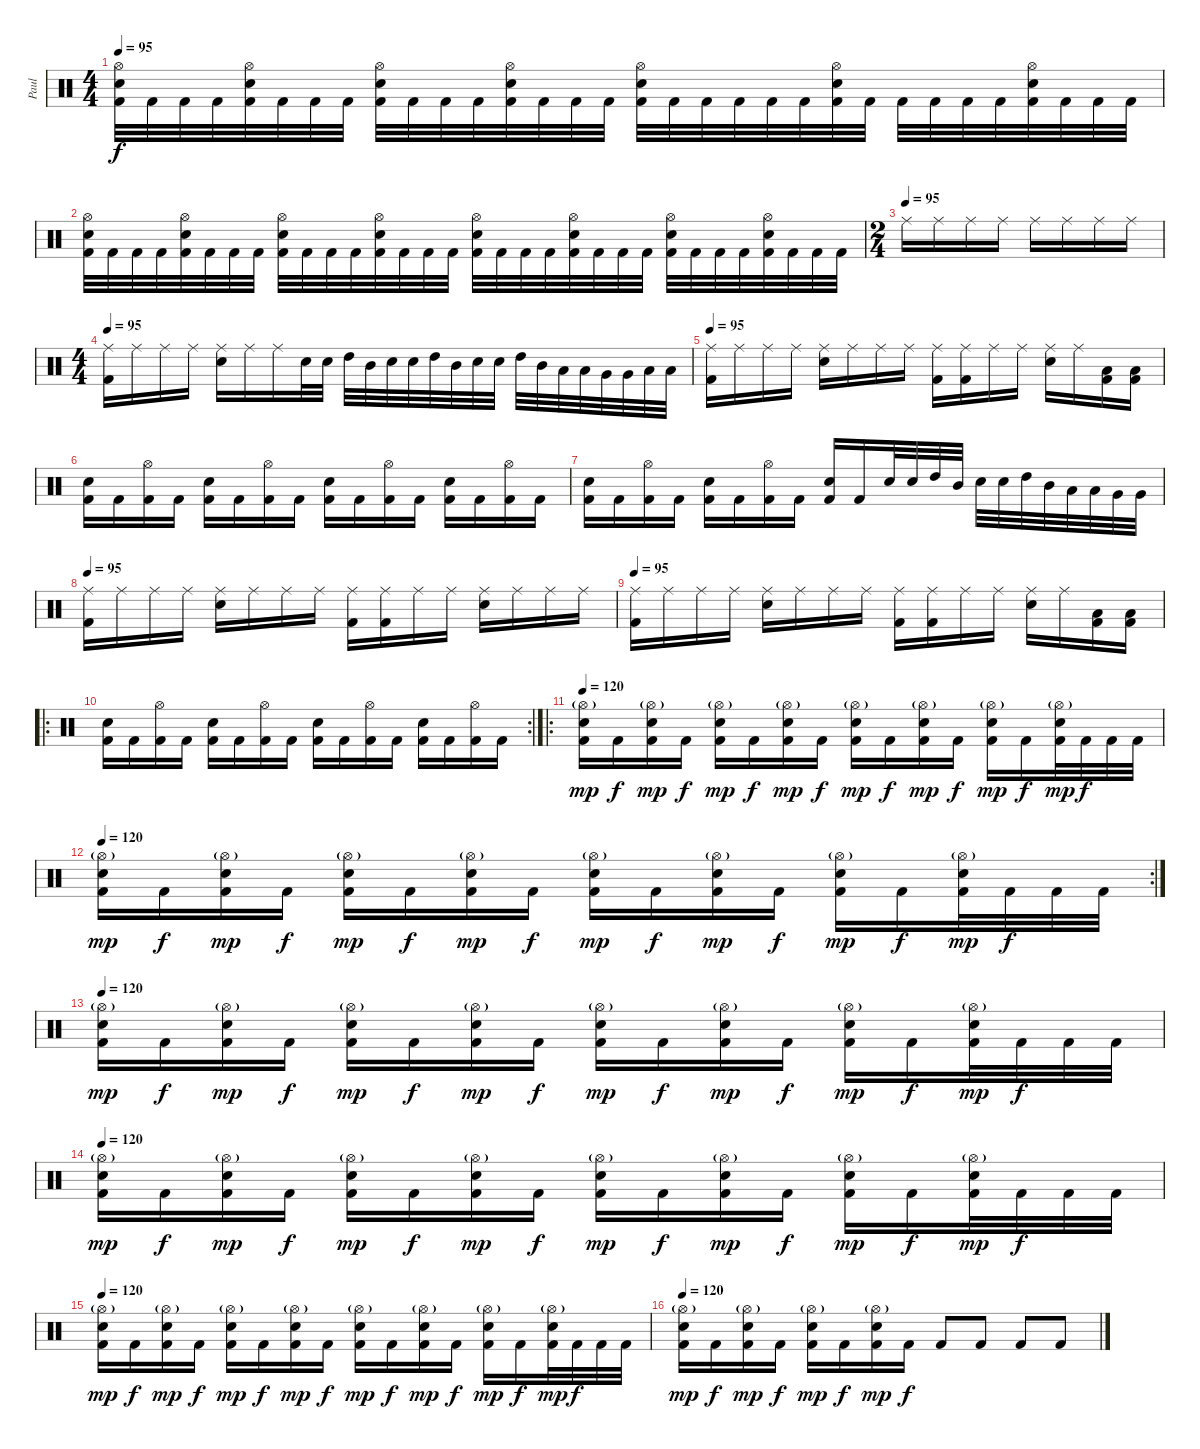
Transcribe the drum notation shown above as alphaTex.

\track ("Paul" "Paul") {instrument percussion}
\staff {score}
\articulation defaults
\ts (4 4)
\tempo 95
\clef neutral
\ks c
("Hi-Hat (open)" "Electric Snare (hit)" "Kick (hit) 2").32{dy f} "Kick (hit) 2".32 "Kick (hit) 2".32 "Kick (hit) 2".32 ("Hi-Hat (open)" "Electric Snare (hit)" "Kick (hit) 2").32 "Kick (hit) 2".32 "Kick (hit) 2".32 "Kick (hit) 2".32 ("Hi-Hat (open)" "Electric Snare (hit)" "Kick (hit) 2").32 "Kick (hit) 2".32 "Kick (hit) 2".32 "Kick (hit) 2".32 ("Hi-Hat (open)" "Electric Snare (hit)" "Kick (hit) 2").32 "Kick (hit) 2".32 "Kick (hit) 2".32 "Kick (hit) 2".32 ("Hi-Hat (open)" "Electric Snare (hit)" "Kick (hit) 2").32 "Kick (hit) 2".32 "Kick (hit) 2".32 "Kick (hit) 2".32 "Kick (hit) 2".32 "Kick (hit) 2".32 ("Hi-Hat (open)" "Electric Snare (hit)" "Kick (hit) 2").32 "Kick (hit) 2".32 "Kick (hit) 2".32 "Kick (hit) 2".32 "Kick (hit) 2".32 "Kick (hit) 2".32 ("Hi-Hat (open)" "Electric Snare (hit)" "Kick (hit) 2").32 "Kick (hit) 2".32 "Kick (hit) 2".32 "Kick (hit) 2".32 |
("Hi-Hat (open)" "Electric Snare (hit)" "Kick (hit) 2").32 "Kick (hit) 2".32 "Kick (hit) 2".32 "Kick (hit) 2".32 ("Hi-Hat (open)" "Electric Snare (hit)" "Kick (hit) 2").32 "Kick (hit) 2".32 "Kick (hit) 2".32 "Kick (hit) 2".32 ("Hi-Hat (open)" "Electric Snare (hit)" "Kick (hit) 2").32 "Kick (hit) 2".32 "Kick (hit) 2".32 "Kick (hit) 2".32 ("Hi-Hat (open)" "Electric Snare (hit)" "Kick (hit) 2").32 "Kick (hit) 2".32 "Kick (hit) 2".32 "Kick (hit) 2".32 ("Hi-Hat (open)" "Electric Snare (hit)" "Kick (hit) 2").32 "Kick (hit) 2".32 "Kick (hit) 2".32 "Kick (hit) 2".32 ("Hi-Hat (open)" "Electric Snare (hit)" "Kick (hit) 2").32 "Kick (hit) 2".32 "Kick (hit) 2".32 "Kick (hit) 2".32 ("Hi-Hat (open)" "Electric Snare (hit)" "Kick (hit) 2").32 "Kick (hit) 2".32 "Kick (hit) 2".32 "Kick (hit) 2".32 ("Hi-Hat (open)" "Electric Snare (hit)" "Kick (hit) 2").32 "Kick (hit) 2".32 "Kick (hit) 2".32 "Kick (hit) 2".32 |
\ts (2 4)
\tempo (95)
"Ride (middle)".16 "Ride (middle)".16 "Ride (middle)".16 "Ride (middle)".16 "Ride (middle)".16 "Ride (middle)".16 "Ride (middle)".16 "Ride (middle)".16 |
\ts (4 4)
\tempo 95
("Ride (middle)" "Kick (hit) 2").16{volume 15} "Ride (middle)".16 "Ride (middle)".16 "Ride (middle)".16 ("Ride (middle)" "Electric Snare (hit)").16 "Ride (middle)".16 "Ride (middle)".16 "Electric Snare (hit)".32 "Electric Snare (hit)".32 "High Tom (hit)".32 "Mid Tom (hit)".32 "Electric Snare (hit)".32 "Electric Snare (hit)".32 "High Tom (hit)".32 "Mid Tom (hit)".32 "Electric Snare (hit)".32 "Electric Snare (hit)".32 "High Tom (hit)".32 "Mid Tom (hit)".32 "Low Tom (hit)".32 "Low Tom (hit)".32 "Very Low Tom (hit)".32 "Very Low Tom (hit)".32 "Low Floor Tom (hit)".32 "Low Floor Tom (hit)".32 |
\tempo 95
("Ride (middle)" "Kick (hit) 2").16{volume 15} "Ride (middle)".16 "Ride (middle)".16 "Ride (middle)".16 ("Ride (middle)" "Electric Snare (hit)").16 "Ride (middle)".16 "Ride (middle)".16 "Ride (middle)".16 ("Ride (middle)" "Kick (hit) 2").16 ("Ride (middle)" "Kick (hit) 2").16 "Ride (middle)".16 "Ride (middle)".16 ("Ride (middle)" "Electric Snare (hit)").16 "Ride (middle)".16 ("Low Floor Tom (hit)" "Kick (hit) 2").16 ("Low Floor Tom (hit)" "Kick (hit) 2").16 |
("Electric Snare (hit)" "Kick (hit) 2").16 "Kick (hit) 2".16 ("Hi-Hat (open)" "Kick (hit) 2").16 "Kick (hit) 2".16 ("Electric Snare (hit)" "Kick (hit) 2").16 "Kick (hit) 2".16 ("Hi-Hat (open)" "Kick (hit) 2").16 "Kick (hit) 2".16 ("Electric Snare (hit)" "Kick (hit) 2").16 "Kick (hit) 2".16 ("Hi-Hat (open)" "Kick (hit) 2").16 "Kick (hit) 2".16 ("Electric Snare (hit)" "Kick (hit) 2").16 "Kick (hit) 2".16 ("Hi-Hat (open)" "Kick (hit) 2").16 "Kick (hit) 2".16 |
("Electric Snare (hit)" "Kick (hit) 2").16 "Kick (hit) 2".16 ("Hi-Hat (open)" "Kick (hit) 2").16 "Kick (hit) 2".16 ("Electric Snare (hit)" "Kick (hit) 2").16 "Kick (hit) 2".16 ("Hi-Hat (open)" "Kick (hit) 2").16 "Kick (hit) 2".16 ("Electric Snare (hit)" "Kick (hit) 2").16 "Kick (hit) 2".16 "Electric Snare (hit)".32 "Electric Snare (hit)".32 "High Tom (hit)".32 "Mid Tom (hit)".32 "Electric Snare (hit)".32 "Electric Snare (hit)".32 "High Tom (hit)".32 "Mid Tom (hit)".32 "Low Tom (hit)".32 "Low Tom (hit)".32 "Very Low Tom (hit)".32 "Very Low Tom (hit)".32 |
\tempo 95
("Ride (middle)" "Kick (hit) 2").16{volume 15} "Ride (middle)".16 "Ride (middle)".16 "Ride (middle)".16 ("Ride (middle)" "Electric Snare (hit)").16 "Ride (middle)".16 "Ride (middle)".16 "Ride (middle)".16 ("Ride (middle)" "Kick (hit) 2").16 ("Ride (middle)" "Kick (hit) 2").16 "Ride (middle)".16 "Ride (middle)".16 ("Ride (middle)" "Electric Snare (hit)").16 "Ride (middle)".16 "Ride (middle)".16 "Ride (middle)".16 |
\tempo 95
("Ride (middle)" "Kick (hit) 2").16{volume 15} "Ride (middle)".16 "Ride (middle)".16 "Ride (middle)".16 ("Ride (middle)" "Electric Snare (hit)").16 "Ride (middle)".16 "Ride (middle)".16 "Ride (middle)".16 ("Ride (middle)" "Kick (hit) 2").16 ("Ride (middle)" "Kick (hit) 2").16 "Ride (middle)".16 "Ride (middle)".16 ("Ride (middle)" "Electric Snare (hit)").16 "Ride (middle)".16 ("Low Floor Tom (hit)" "Kick (hit) 2").16 ("Low Floor Tom (hit)" "Kick (hit) 2").16 |
\ro
\rc 2
("Electric Snare (hit)" "Kick (hit) 2").16 "Kick (hit) 2".16 ("Hi-Hat (open)" "Kick (hit) 2").16 "Kick (hit) 2".16 ("Electric Snare (hit)" "Kick (hit) 2").16 "Kick (hit) 2".16 ("Hi-Hat (open)" "Kick (hit) 2").16 "Kick (hit) 2".16 ("Electric Snare (hit)" "Kick (hit) 2").16 "Kick (hit) 2".16 ("Hi-Hat (open)" "Kick (hit) 2").16 "Kick (hit) 2".16 ("Electric Snare (hit)" "Kick (hit) 2").16 "Kick (hit) 2".16 ("Hi-Hat (open)" "Kick (hit) 2").16 "Kick (hit) 2".16 |
\ro
\tempo 120
("Hi-Hat (open)"{g} "Electric Snare (hit)" "Kick (hit) 2").16{dy mp} "Kick (hit) 2".16{dy f} ("Hi-Hat (open)"{g} "Electric Snare (hit)" "Kick (hit) 2").16{dy mp} "Kick (hit) 2".16{dy f} ("Hi-Hat (open)"{g} "Electric Snare (hit)" "Kick (hit) 2").16{dy mp} "Kick (hit) 2".16{dy f} ("Hi-Hat (open)"{g} "Electric Snare (hit)" "Kick (hit) 2").16{dy mp} "Kick (hit) 2".16{dy f} ("Hi-Hat (open)"{g} "Electric Snare (hit)" "Kick (hit) 2").16{dy mp} "Kick (hit) 2".16{dy f} ("Hi-Hat (open)"{g} "Electric Snare (hit)" "Kick (hit) 2").16{dy mp} "Kick (hit) 2".16{dy f} ("Hi-Hat (open)"{g} "Electric Snare (hit)" "Kick (hit) 2").16{dy mp} "Kick (hit) 2".16{dy f} ("Hi-Hat (open)"{g} "Electric Snare (hit)" "Kick (hit) 2").32{dy mp} "Kick (hit) 2".32{dy f} "Kick (hit) 2".32 "Kick (hit) 2".32 |
\rc 2
\tempo 120
("Hi-Hat (open)"{g} "Electric Snare (hit)" "Kick (hit) 2").16{dy mp} "Kick (hit) 2".16{dy f} ("Hi-Hat (open)"{g} "Electric Snare (hit)" "Kick (hit) 2").16{dy mp} "Kick (hit) 2".16{dy f} ("Hi-Hat (open)"{g} "Electric Snare (hit)" "Kick (hit) 2").16{dy mp} "Kick (hit) 2".16{dy f} ("Hi-Hat (open)"{g} "Electric Snare (hit)" "Kick (hit) 2").16{dy mp} "Kick (hit) 2".16{dy f} ("Hi-Hat (open)"{g} "Electric Snare (hit)" "Kick (hit) 2").16{dy mp} "Kick (hit) 2".16{dy f} ("Hi-Hat (open)"{g} "Electric Snare (hit)" "Kick (hit) 2").16{dy mp} "Kick (hit) 2".16{dy f} ("Hi-Hat (open)"{g} "Electric Snare (hit)" "Kick (hit) 2").16{dy mp} "Kick (hit) 2".16{dy f} ("Hi-Hat (open)"{g} "Electric Snare (hit)" "Kick (hit) 2").32{dy mp} "Kick (hit) 2".32{dy f} "Kick (hit) 2".32 "Kick (hit) 2".32 |
\tempo 120
("Hi-Hat (open)"{g} "Electric Snare (hit)" "Kick (hit) 2").16{dy mp} "Kick (hit) 2".16{dy f} ("Hi-Hat (open)"{g} "Electric Snare (hit)" "Kick (hit) 2").16{dy mp} "Kick (hit) 2".16{dy f} ("Hi-Hat (open)"{g} "Electric Snare (hit)" "Kick (hit) 2").16{dy mp} "Kick (hit) 2".16{dy f} ("Hi-Hat (open)"{g} "Electric Snare (hit)" "Kick (hit) 2").16{dy mp} "Kick (hit) 2".16{dy f} ("Hi-Hat (open)"{g} "Electric Snare (hit)" "Kick (hit) 2").16{dy mp} "Kick (hit) 2".16{dy f} ("Hi-Hat (open)"{g} "Electric Snare (hit)" "Kick (hit) 2").16{dy mp} "Kick (hit) 2".16{dy f} ("Hi-Hat (open)"{g} "Electric Snare (hit)" "Kick (hit) 2").16{dy mp} "Kick (hit) 2".16{dy f} ("Hi-Hat (open)"{g} "Electric Snare (hit)" "Kick (hit) 2").32{dy mp} "Kick (hit) 2".32{dy f} "Kick (hit) 2".32 "Kick (hit) 2".32 |
\tempo 120
("Hi-Hat (open)"{g} "Electric Snare (hit)" "Kick (hit) 2").16{dy mp} "Kick (hit) 2".16{dy f} ("Hi-Hat (open)"{g} "Electric Snare (hit)" "Kick (hit) 2").16{dy mp} "Kick (hit) 2".16{dy f} ("Hi-Hat (open)"{g} "Electric Snare (hit)" "Kick (hit) 2").16{dy mp} "Kick (hit) 2".16{dy f} ("Hi-Hat (open)"{g} "Electric Snare (hit)" "Kick (hit) 2").16{dy mp} "Kick (hit) 2".16{dy f} ("Hi-Hat (open)"{g} "Electric Snare (hit)" "Kick (hit) 2").16{dy mp} "Kick (hit) 2".16{dy f} ("Hi-Hat (open)"{g} "Electric Snare (hit)" "Kick (hit) 2").16{dy mp} "Kick (hit) 2".16{dy f} ("Hi-Hat (open)"{g} "Electric Snare (hit)" "Kick (hit) 2").16{dy mp} "Kick (hit) 2".16{dy f} ("Hi-Hat (open)"{g} "Electric Snare (hit)" "Kick (hit) 2").32{dy mp} "Kick (hit) 2".32{dy f} "Kick (hit) 2".32 "Kick (hit) 2".32 |
\tempo 120
("Hi-Hat (open)"{g} "Electric Snare (hit)" "Kick (hit) 2").16{dy mp} "Kick (hit) 2".16{dy f} ("Hi-Hat (open)"{g} "Electric Snare (hit)" "Kick (hit) 2").16{dy mp} "Kick (hit) 2".16{dy f} ("Hi-Hat (open)"{g} "Electric Snare (hit)" "Kick (hit) 2").16{dy mp} "Kick (hit) 2".16{dy f} ("Hi-Hat (open)"{g} "Electric Snare (hit)" "Kick (hit) 2").16{dy mp} "Kick (hit) 2".16{dy f} ("Hi-Hat (open)"{g} "Electric Snare (hit)" "Kick (hit) 2").16{dy mp} "Kick (hit) 2".16{dy f} ("Hi-Hat (open)"{g} "Electric Snare (hit)" "Kick (hit) 2").16{dy mp} "Kick (hit) 2".16{dy f} ("Hi-Hat (open)"{g} "Electric Snare (hit)" "Kick (hit) 2").16{dy mp} "Kick (hit) 2".16{dy f} ("Hi-Hat (open)"{g} "Electric Snare (hit)" "Kick (hit) 2").32{dy mp} "Kick (hit) 2".32{dy f} "Kick (hit) 2".32 "Kick (hit) 2".32 |
\tempo 120
("Hi-Hat (open)"{g} "Electric Snare (hit)" "Kick (hit) 2").16{dy mp} "Kick (hit) 2".16{dy f} ("Hi-Hat (open)"{g} "Electric Snare (hit)" "Kick (hit) 2").16{dy mp} "Kick (hit) 2".16{dy f} ("Hi-Hat (open)"{g} "Electric Snare (hit)" "Kick (hit) 2").16{dy mp} "Kick (hit) 2".16{dy f} ("Hi-Hat (open)"{g} "Electric Snare (hit)" "Kick (hit) 2").16{dy mp} "Kick (hit) 2".16{dy f} "Kick (hit) 2".8 "Kick (hit) 2".8 "Kick (hit) 2".8 "Kick (hit) 2".8
